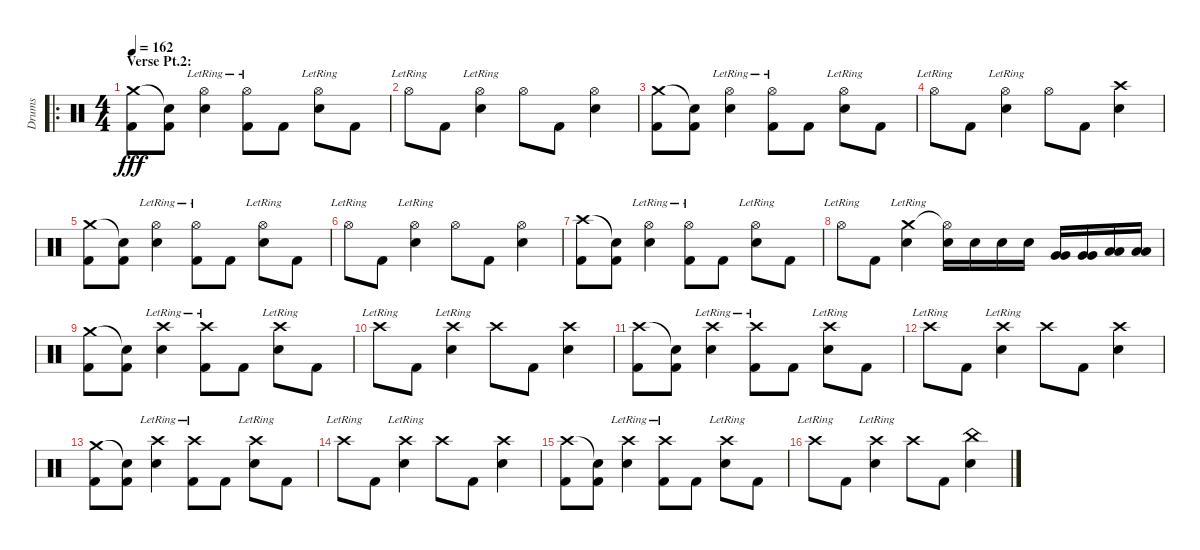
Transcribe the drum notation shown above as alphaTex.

\track ("Drums" "Drums") {instrument percussion}
\staff {score}
\articulation defaults
\ro
\ts (4 4)
\section ("" "Verse Pt.2:")
\tempo 162
\clef neutral
\ks c
("Crash medium (hit)" "Kick (hit) 2").8{dy fff} ("Snare (hit)"{t} "Kick (hit) 2").8 ("Hi-Hat (open)"{lr} "Snare (hit) 2").4 ("Hi-Hat (open)"{lr} "Kick (hit) 2").8 "Kick (hit) 2".8 ("Hi-Hat (open)"{lr} "Snare (hit) 2").8 "Kick (hit) 2".8 |
"Hi-Hat (open)"{lr}.8 "Kick (hit) 2".8 ("Hi-Hat (open)"{lr} "Snare (hit) 2").4 "Hi-Hat (open)".8 "Kick (hit) 2".8 ("Hi-Hat (open)" "Snare (hit) 2").4 |
("Crash medium (hit)" "Kick (hit) 2").8 ("Snare (hit)"{t} "Kick (hit) 2").8 ("Hi-Hat (open)"{lr} "Snare (hit) 2").4 ("Hi-Hat (open)"{lr} "Kick (hit) 2").8 "Kick (hit) 2".8 ("Hi-Hat (open)"{lr} "Snare (hit) 2").8 "Kick (hit) 2".8 |
"Hi-Hat (open)"{lr}.8 "Kick (hit) 2".8 ("Hi-Hat (open)"{lr} "Snare (hit) 2").4 "Hi-Hat (open)".8 "Kick (hit) 2".8 ("Crash high (hit)" "Snare (hit) 2").4 |
("Crash medium (hit)" "Kick (hit) 2").8 ("Snare (hit)"{t} "Kick (hit) 2").8 ("Hi-Hat (open)"{lr} "Snare (hit) 2").4 ("Hi-Hat (open)"{lr} "Kick (hit) 2").8 "Kick (hit) 2".8 ("Hi-Hat (open)"{lr} "Snare (hit) 2").8 "Kick (hit) 2".8 |
"Hi-Hat (open)"{lr}.8 "Kick (hit) 2".8 ("Hi-Hat (open)"{lr} "Snare (hit) 2").4 "Hi-Hat (open)".8 "Kick (hit) 2".8 ("Hi-Hat (open)" "Snare (hit) 2").4 |
("Crash high (hit)" "Kick (hit) 2").8 ("Snare (hit)"{t} "Kick (hit) 2").8 ("Hi-Hat (open)"{lr} "Snare (hit) 2").4 ("Hi-Hat (open)"{lr} "Kick (hit) 2").8 "Kick (hit) 2".8 ("Hi-Hat (open)"{lr} "Snare (hit) 2").8 "Kick (hit) 2".8 |
"Hi-Hat (open)"{lr}.8 "Kick (hit) 2".8 ("Crash medium (hit)"{lr} "Snare (hit) 2").4 ("Hi-Hat (open)"{t} "Snare (hit) 2").16 "Snare (hit) 2".16 "Snare (hit) 2".16 "Snare (hit) 2".16 ("Very Low Tom (hit)" "Very Low Tom (hit)").16 ("Very Low Tom (hit)" "Very Low Tom (hit)").16 ("Low Floor Tom (hit)" "Low Floor Tom (hit)").16 ("Low Floor Tom (hit)" "Low Floor Tom (hit)").16 |
("Crash medium (hit)" "Kick (hit) 2").8 ("Snare (hit)"{t} "Kick (hit) 2").8 ("Crash high (hit)"{lr} "Snare (hit) 2").4 ("Crash high (hit)"{lr} "Kick (hit) 2").8 "Kick (hit) 2".8 ("Crash high (hit)"{lr} "Snare (hit) 2").8 "Kick (hit) 2".8 |
"Crash high (hit)"{lr}.8 "Kick (hit) 2".8 ("Crash high (hit)"{lr} "Snare (hit) 2").4 "Crash high (hit)".8 "Kick (hit) 2".8 ("Crash high (hit)" "Snare (hit) 2").4 |
("Crash high (hit)" "Kick (hit) 2").8 ("Snare (hit)"{t} "Kick (hit) 2").8 ("Crash high (hit)"{lr} "Snare (hit) 2").4 ("Crash high (hit)"{lr} "Kick (hit) 2").8 "Kick (hit) 2".8 ("Crash high (hit)"{lr} "Snare (hit) 2").8 "Kick (hit) 2".8 |
"Crash high (hit)"{lr}.8 "Kick (hit) 2".8 ("Crash high (hit)"{lr} "Snare (hit) 2").4 "Crash high (hit)".8 "Kick (hit) 2".8 ("Crash high (hit)" "Snare (hit) 2").4 |
("Crash medium (hit)" "Kick (hit) 2").8 ("Snare (hit)"{t} "Kick (hit) 2").8 ("Crash high (hit)"{lr} "Snare (hit) 2").4 ("Crash high (hit)"{lr} "Kick (hit) 2").8 "Kick (hit) 2".8 ("Crash high (hit)"{lr} "Snare (hit) 2").8 "Kick (hit) 2".8 |
"Crash high (hit)"{lr}.8 "Kick (hit) 2".8 ("Crash high (hit)"{lr} "Snare (hit) 2").4 "Crash high (hit)".8 "Kick (hit) 2".8 ("Crash high (hit)" "Snare (hit) 2").4 |
("Crash high (hit)" "Kick (hit) 2").8 ("Snare (hit)"{t} "Kick (hit) 2").8 ("Crash high (hit)"{lr} "Snare (hit) 2").4 ("Crash high (hit)"{lr} "Kick (hit) 2").8 "Kick (hit) 2".8 ("Crash high (hit)"{lr} "Snare (hit) 2").8 "Kick (hit) 2".8 |
"Crash high (hit)"{lr}.8 "Kick (hit) 2".8 ("Crash high (hit)"{lr} "Snare (hit) 2").4 "Crash high (hit)".8 "Kick (hit) 2".8 ("China (hit)" "Snare (hit) 2").4
